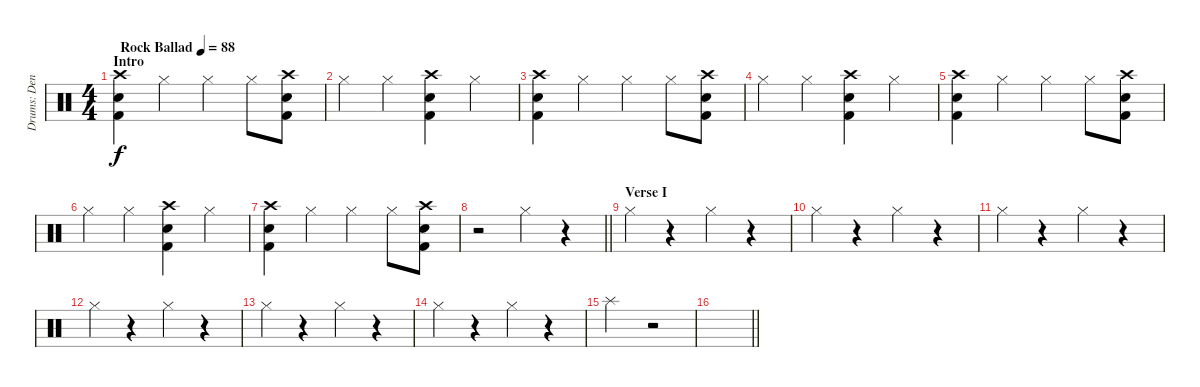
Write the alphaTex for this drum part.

\track ("Drums: Denny Carmassi" "Drums: Den") {instrument percussion}
\staff {score}
\articulation defaults
\ts (4 4)
\section ("" "Intro")
\tempo (88 "Rock Ballad")
\clef neutral
\ks c
("Crash high (hit)" "Snare (hit) 2" "Kick (hit) 2").4{dy f} "Hi-Hat (closed)".4 "Hi-Hat (closed)".4 "Hi-Hat (closed)".8 ("Crash high (hit)" "Snare (hit) 2" "Kick (hit) 2").8 |
"Hi-Hat (closed)".4 "Hi-Hat (closed)".4 ("Crash high (hit)" "Snare (hit) 2" "Kick (hit) 2").4 "Hi-Hat (closed)".4 |
("Crash high (hit)" "Snare (hit) 2" "Kick (hit) 2").4 "Hi-Hat (closed)".4 "Hi-Hat (closed)".4 "Hi-Hat (closed)".8 ("Crash high (hit)" "Snare (hit) 2" "Kick (hit) 2").8 |
"Hi-Hat (closed)".4 "Hi-Hat (closed)".4 ("Crash high (hit)" "Snare (hit) 2" "Kick (hit) 2").4 "Hi-Hat (closed)".4 |
("Crash high (hit)" "Snare (hit) 2" "Kick (hit) 2").4 "Hi-Hat (closed)".4 "Hi-Hat (closed)".4 "Hi-Hat (closed)".8 ("Crash high (hit)" "Snare (hit) 2" "Kick (hit) 2").8 |
"Hi-Hat (closed)".4 "Hi-Hat (closed)".4 ("Crash high (hit)" "Snare (hit) 2" "Kick (hit) 2").4 "Hi-Hat (closed)".4 |
("Crash high (hit)" "Snare (hit) 2" "Kick (hit) 2").4 "Hi-Hat (closed)".4 "Hi-Hat (closed)".4 "Hi-Hat (closed)".8 ("Crash high (hit)" "Snare (hit) 2" "Kick (hit) 2").8 |
\barLineRight lightlight
r.2 "Hi-Hat (closed)".4 r.4 |
\section ("" "Verse I")
"Hi-Hat (closed)".4 r.4 "Hi-Hat (closed)".4 r.4 |
"Hi-Hat (closed)".4 r.4 "Hi-Hat (closed)".4 r.4 |
"Hi-Hat (closed)".4 r.4 "Hi-Hat (closed)".4 r.4 |
"Hi-Hat (closed)".4 r.4 "Hi-Hat (closed)".4 r.4 |
"Hi-Hat (closed)".4 r.4 "Hi-Hat (closed)".4 r.4 |
"Hi-Hat (closed)".4 r.4 "Hi-Hat (closed)".4 r.4 |
"Splash (hit)".2 r.2 |
\barLineRight lightlight
